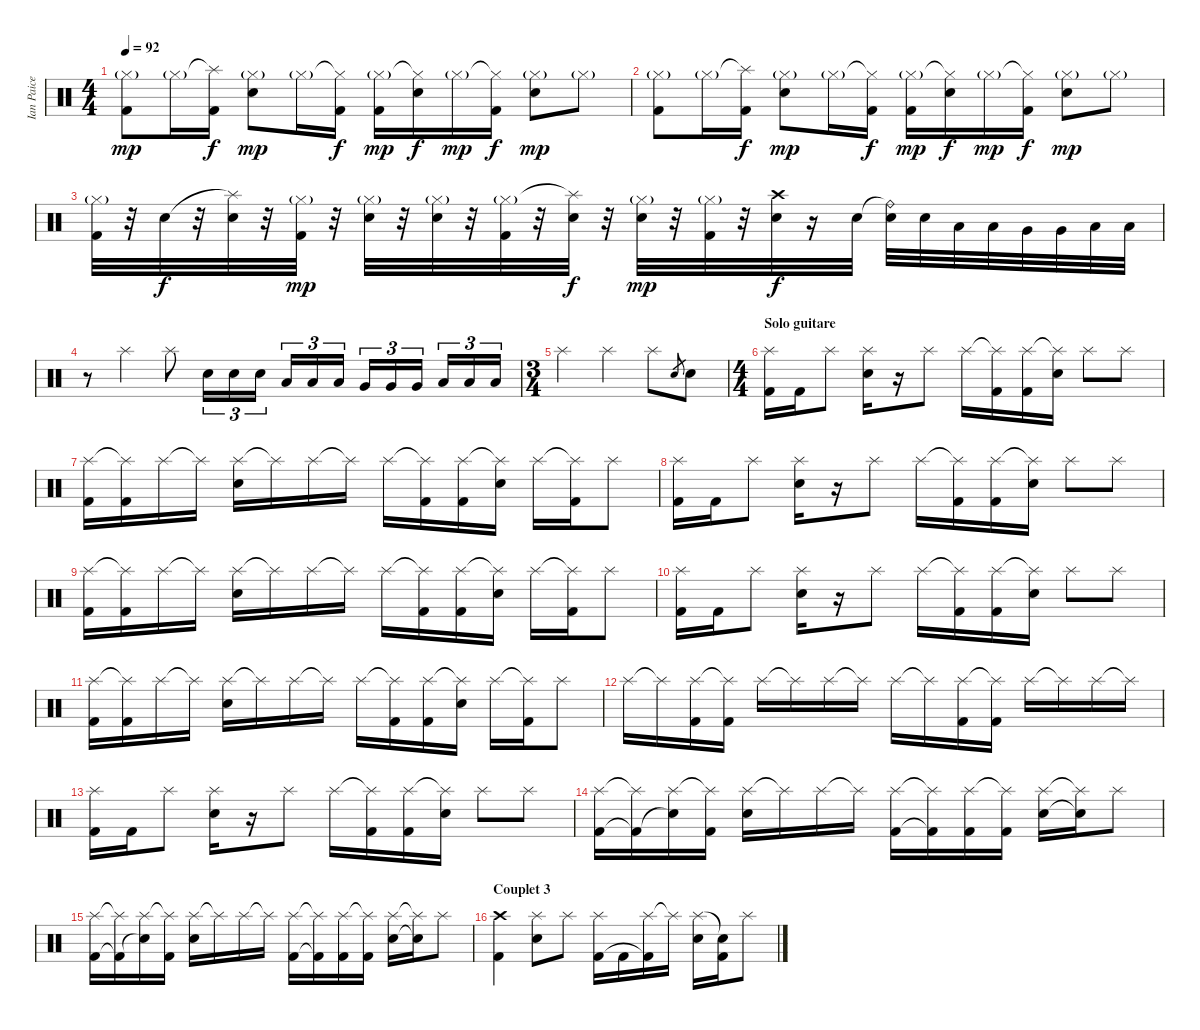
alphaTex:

\track ("Ian Paice" "Ian Paice") {instrument percussion}
\staff {score}
\articulation defaults
\ts (4 4)
\tempo 92
\clef neutral
\ks c
("Hi-Hat (closed)"{g} "Kick (hit) 2").8{dy mp} "Hi-Hat (closed)"{g}.16 ("Splash (hit)"{t} "Kick (hit) 2").16{dy f} ("Hi-Hat (closed)"{g} "Snare (hit) 2").8{dy mp} "Hi-Hat (closed)"{g}.16 ("Hi-Hat (closed)"{t} "Kick (hit) 2").16{dy f} ("Hi-Hat (closed)"{g} "Kick (hit) 2").16{dy mp} ("Hi-Hat (closed)"{t} "Snare (hit) 2").16{dy f} "Hi-Hat (closed)"{g}.16{dy mp} ("Hi-Hat (closed)"{t} "Kick (hit) 2").16{dy f} ("Hi-Hat (closed)"{g} "Snare (hit) 2").8{dy mp} "Hi-Hat (closed)"{g}.8 |
("Hi-Hat (closed)"{g} "Kick (hit) 2").8 "Hi-Hat (closed)"{g}.16 ("Splash (hit)"{t} "Kick (hit) 2").16{dy f} ("Hi-Hat (closed)"{g} "Snare (hit) 2").8{dy mp} "Hi-Hat (closed)"{g}.16 ("Hi-Hat (closed)"{t} "Kick (hit) 2").16{dy f} ("Hi-Hat (closed)"{g} "Kick (hit) 2").16{dy mp} ("Hi-Hat (closed)"{t} "Snare (hit) 2").16{dy f} "Hi-Hat (closed)"{g}.16{dy mp} ("Hi-Hat (closed)"{t} "Kick (hit) 2").16{dy f} ("Hi-Hat (closed)"{g} "Snare (hit) 2").8{dy mp} "Hi-Hat (closed)"{g}.8 |
("Hi-Hat (closed)"{g} "Kick (hit) 2").32 r.32 "Snare (hit) 2".32{dy f} r.32 ("Splash (hit)"{t} "Snare (hit) 2").32 r.32 ("Hi-Hat (closed)"{g} "Kick (hit) 2").32{dy mp} r.32 ("Hi-Hat (closed)"{g} "Snare (hit) 2").32 r.32 ("Hi-Hat (closed)"{g} "Snare (hit) 2").32 r.32 ("Hi-Hat (closed)"{g} "Kick (hit) 2").32 r.32 ("Splash (hit)"{t} "Snare (hit) 2").32{dy f} r.32 ("Hi-Hat (closed)"{g} "Snare (hit) 2").32{dy mp} r.32 ("Hi-Hat (closed)"{g} "Kick (hit) 2").32 r.32 ("Crash high (hit)" "Snare (hit) 2").32{dy f} r.16 "Snare (hit) 2".32 ("Ride (bell)"{t} "Snare (hit) 2").32 "Snare (hit) 2".32 "Low Tom (hit)".32 "Low Tom (hit)".32 "Very Low Tom (hit)".32 "Very Low Tom (hit)".32 "Low Floor Tom (hit)".32 "Low Floor Tom (hit)".32 |
r.8 "Splash (hit)".4 "Splash (hit)".8 "Snare (hit) 2".16{tu (3 2)} "Snare (hit) 2".16{tu (3 2)} "Snare (hit) 2".16{tu (3 2)} "Low Tom (hit)".16{tu (3 2)} "Low Tom (hit)".16{tu (3 2)} "Low Tom (hit)".16{tu (3 2)} "Very Low Tom (hit)".16{tu (3 2)} "Very Low Tom (hit)".16{tu (3 2)} "Very Low Tom (hit)".16{tu (3 2)} "Low Floor Tom (hit)".16{tu (3 2)} "Low Floor Tom (hit)".16{tu (3 2)} "Low Floor Tom (hit)".16{tu (3 2)} |
\ts (3 4)
"Splash (hit)".4 "Splash (hit)".4 "Splash (hit)".8 "Snare (hit) 2".8{gr} "Snare (hit) 2".8 |
\ts (4 4)
\section ("" "Solo guitare")
("Splash (hit)" "Kick (hit) 2").16 "Kick (hit) 2".16 "Splash (hit)".8 ("Splash (hit)" "Snare (hit) 2").16 r.16 "Splash (hit)".8 "Splash (hit)".16 ("Splash (hit)"{t} "Kick (hit) 2").16 ("Splash (hit)" "Kick (hit) 2").16 ("Splash (hit)"{t} "Snare (hit) 2").16 "Splash (hit)".8 "Splash (hit)".8 |
("Splash (hit)" "Kick (hit) 2").16 ("Splash (hit)"{t} "Kick (hit) 2").16 "Splash (hit)".16 "Splash (hit)"{t}.16 ("Splash (hit)" "Snare (hit) 2").16 "Splash (hit)"{t}.16 "Splash (hit)".16 "Splash (hit)"{t}.16 "Splash (hit)".16 ("Splash (hit)"{t} "Kick (hit) 2").16 ("Splash (hit)" "Kick (hit) 2").16 ("Splash (hit)"{t} "Snare (hit) 2").16 "Splash (hit)".16 ("Splash (hit)"{t} "Kick (hit) 2").16 "Splash (hit)".8 |
("Splash (hit)" "Kick (hit) 2").16 "Kick (hit) 2".16 "Splash (hit)".8 ("Splash (hit)" "Snare (hit) 2").16 r.16 "Splash (hit)".8 "Splash (hit)".16 ("Splash (hit)"{t} "Kick (hit) 2").16 ("Splash (hit)" "Kick (hit) 2").16 ("Splash (hit)"{t} "Snare (hit) 2").16 "Splash (hit)".8 "Splash (hit)".8 |
("Splash (hit)" "Kick (hit) 2").16 ("Splash (hit)"{t} "Kick (hit) 2").16 "Splash (hit)".16 "Splash (hit)"{t}.16 ("Splash (hit)" "Snare (hit) 2").16 "Splash (hit)"{t}.16 "Splash (hit)".16 "Splash (hit)"{t}.16 "Splash (hit)".16 ("Splash (hit)"{t} "Kick (hit) 2").16 ("Splash (hit)" "Kick (hit) 2").16 ("Splash (hit)"{t} "Snare (hit) 2").16 "Splash (hit)".16 ("Splash (hit)"{t} "Kick (hit) 2").16 "Splash (hit)".8 |
("Splash (hit)" "Kick (hit) 2").16 "Kick (hit) 2".16 "Splash (hit)".8 ("Splash (hit)" "Snare (hit) 2").16 r.16 "Splash (hit)".8 "Splash (hit)".16 ("Splash (hit)"{t} "Kick (hit) 2").16 ("Splash (hit)" "Kick (hit) 2").16 ("Splash (hit)"{t} "Snare (hit) 2").16 "Splash (hit)".8 "Splash (hit)".8 |
("Splash (hit)" "Kick (hit) 2").16 ("Splash (hit)"{t} "Kick (hit) 2").16 "Splash (hit)".16 "Splash (hit)"{t}.16 ("Splash (hit)" "Snare (hit) 2").16 "Splash (hit)"{t}.16 "Splash (hit)".16 "Splash (hit)"{t}.16 "Splash (hit)".16 ("Splash (hit)"{t} "Kick (hit) 2").16 ("Splash (hit)" "Kick (hit) 2").16 ("Splash (hit)"{t} "Snare (hit) 2").16 "Splash (hit)".16 ("Splash (hit)"{t} "Kick (hit) 2").16 "Splash (hit)".8 |
"Splash (hit)".16 "Splash (hit)"{t}.16 ("Splash (hit)" "Kick (hit) 2").16 ("Splash (hit)"{t} "Kick (hit) 2").16 "Splash (hit)".16 "Splash (hit)"{t}.16 "Splash (hit)".16 "Splash (hit)"{t}.16 "Splash (hit)".16 "Splash (hit)"{t}.16 ("Splash (hit)" "Kick (hit) 2").16 ("Splash (hit)"{t} "Kick (hit) 2").16 "Splash (hit)".16 "Splash (hit)"{t}.16 "Splash (hit)".16 "Splash (hit)"{t}.16 |
("Splash (hit)" "Kick (hit) 2").16 "Kick (hit) 2".16 "Splash (hit)".8 ("Splash (hit)" "Snare (hit) 2").16 r.16 "Splash (hit)".8 "Splash (hit)".16 ("Splash (hit)"{t} "Kick (hit) 2").16 ("Splash (hit)" "Kick (hit) 2").16 ("Splash (hit)"{t} "Snare (hit) 2").16 "Splash (hit)".8 "Splash (hit)".8 |
("Splash (hit)" "Kick (hit) 2").16 ("Splash (hit)"{t} "Kick (hit) 2"{t}).16 ("Splash (hit)" "Snare (hit)"{t}).16 ("Splash (hit)"{t} "Kick (hit) 2").16 ("Splash (hit)" "Snare (hit) 2").16 "Splash (hit)"{t}.16 "Splash (hit)".16 "Splash (hit)"{t}.16 ("Splash (hit)" "Kick (hit) 2").16 ("Splash (hit)"{t} "Kick (hit) 2"{t}).16 ("Splash (hit)" "Kick (hit) 2").16 ("Splash (hit)"{t} "Kick (hit) 2").16 ("Splash (hit)" "Snare (hit) 2").16 ("Splash (hit)"{t} "Snare (hit)"{t}).16 "Splash (hit)".8 |
("Splash (hit)" "Kick (hit) 2").16 ("Splash (hit)"{t} "Kick (hit) 2"{t}).16 ("Splash (hit)" "Snare (hit)"{t}).16 ("Splash (hit)"{t} "Kick (hit) 2").16 ("Splash (hit)" "Snare (hit) 2").16 "Splash (hit)"{t}.16 "Splash (hit)".16 "Splash (hit)"{t}.16 ("Splash (hit)" "Kick (hit) 2").16 ("Splash (hit)"{t} "Kick (hit) 2"{t}).16 ("Splash (hit)" "Kick (hit) 2").16 ("Splash (hit)"{t} "Kick (hit) 2").16 ("Splash (hit)" "Snare (hit) 2").16 ("Splash (hit)"{t} "Snare (hit)"{t}).16 "Splash (hit)".8 |
\section ("" "Couplet 3")
("Crash high (hit)" "Kick (hit) 2").4 ("Splash (hit)" "Snare (hit) 2").8 "Splash (hit)".8 ("Splash (hit)" "Kick (hit) 2").16 "Kick (hit) 2".16 ("Splash (hit)" "Kick (hit) 2"{t}).16 "Splash (hit)"{t}.16 ("Splash (hit)" "Snare (hit) 2").16 ("Snare (hit)"{t} "Kick (hit) 2").16 "Splash (hit)".8
